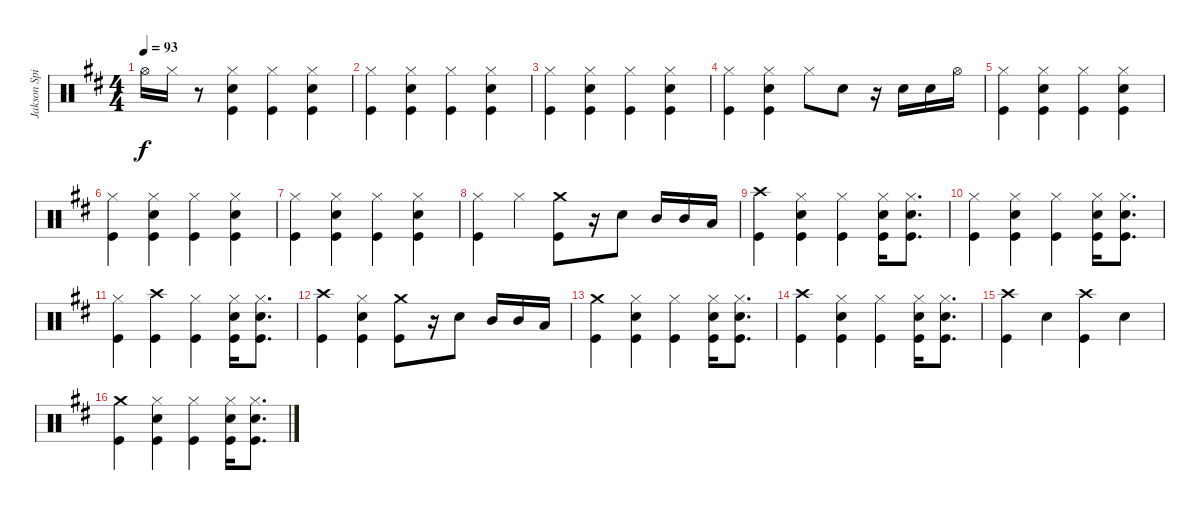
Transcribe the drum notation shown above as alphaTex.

\track ("Jakson Spires Drums" "Jakson Spi") {instrument percussion}
\staff {score}
\articulation defaults
\ts (4 4)
\tempo 93
\clef neutral
\ks bminor "Hi-Hat (open)".16{dy f} "Hi-Hat (closed)".16
r.8 ("Hi-Hat (closed)" "Snare (hit) 2" "Kick (hit)").4 ("Hi-Hat (closed)" "Kick (hit)").4 ("Hi-Hat (closed)" "Snare (hit) 2" "Kick (hit)").4 |
("Hi-Hat (closed)" "Kick (hit)").4 ("Hi-Hat (closed)" "Snare (hit) 2" "Kick (hit)").4 ("Hi-Hat (closed)" "Kick (hit)").4 ("Hi-Hat (closed)" "Snare (hit) 2" "Kick (hit)").4 |
("Hi-Hat (closed)" "Kick (hit)").4 ("Hi-Hat (closed)" "Snare (hit) 2" "Kick (hit)").4 ("Hi-Hat (closed)" "Kick (hit)").4 ("Hi-Hat (closed)" "Snare (hit) 2" "Kick (hit)").4 |
("Hi-Hat (closed)" "Kick (hit)").4 ("Hi-Hat (closed)" "Snare (hit) 2" "Kick (hit)").4 "Hi-Hat (closed)".8 "Snare (hit) 2".8 r.16 "Snare (hit) 2".16 "Snare (hit) 2".16 "Hi-Hat (open)".16 |
("Hi-Hat (closed)" "Kick (hit)").4 ("Hi-Hat (closed)" "Snare (hit) 2" "Kick (hit)").4 ("Hi-Hat (closed)" "Kick (hit)").4 ("Hi-Hat (closed)" "Snare (hit) 2" "Kick (hit)").4 |
("Hi-Hat (closed)" "Kick (hit)").4 ("Hi-Hat (closed)" "Snare (hit) 2" "Kick (hit)").4 ("Hi-Hat (closed)" "Kick (hit)").4 ("Hi-Hat (closed)" "Snare (hit) 2" "Kick (hit)").4 |
("Hi-Hat (closed)" "Kick (hit)").4 ("Hi-Hat (closed)" "Snare (hit) 2" "Kick (hit)").4 ("Hi-Hat (closed)" "Kick (hit)").4 ("Hi-Hat (closed)" "Snare (hit) 2" "Kick (hit)").4 |
("Hi-Hat (closed)" "Kick (hit)").4 "Hi-Hat (closed)".4 ("Crash medium (hit)" "Kick (hit)").8 r.16 "Snare (hit) 2".8 "Mid Tom (hit)".16 "Mid Tom (hit)".16 "Low Tom (hit)".16 |
("Crash high (hit)" "Kick (hit)").4 ("Hi-Hat (closed)" "Snare (hit) 2" "Kick (hit)").4 ("Hi-Hat (closed)" "Kick (hit)").4 ("Hi-Hat (closed)" "Snare (hit) 2" "Kick (hit)").16 ("Hi-Hat (closed)" "Snare (hit) 2" "Kick (hit)").8{d} |
("Hi-Hat (closed)" "Kick (hit)").4 ("Hi-Hat (closed)" "Snare (hit) 2" "Kick (hit)").4 ("Hi-Hat (closed)" "Kick (hit)").4 ("Hi-Hat (closed)" "Snare (hit) 2" "Kick (hit)").16 ("Hi-Hat (closed)" "Snare (hit) 2" "Kick (hit)").8{d} |
("Hi-Hat (closed)" "Kick (hit)").4 ("Crash high (hit)" "Kick (hit)").4 ("Hi-Hat (closed)" "Kick (hit)").4 ("Hi-Hat (closed)" "Snare (hit) 2" "Kick (hit)").16 ("Hi-Hat (closed)" "Snare (hit) 2" "Kick (hit)").8{d} |
("Crash high (hit)" "Kick (hit)").4 ("Hi-Hat (closed)" "Snare (hit) 2" "Kick (hit)").4 ("Crash medium (hit)" "Kick (hit)").8 r.16 "Snare (hit) 2".8 "Mid Tom (hit)".16 "Mid Tom (hit)".16 "Low Tom (hit)".16 |
("Crash medium (hit)" "Kick (hit)").4 ("Hi-Hat (closed)" "Snare (hit) 2" "Kick (hit)").4 ("Hi-Hat (closed)" "Kick (hit)").4 ("Hi-Hat (closed)" "Snare (hit) 2" "Kick (hit)").16 ("Hi-Hat (closed)" "Snare (hit) 2" "Kick (hit)").8{d} |
("Crash high (hit)" "Kick (hit)").4 ("Hi-Hat (closed)" "Snare (hit) 2" "Kick (hit)").4 ("Hi-Hat (closed)" "Kick (hit)").4 ("Hi-Hat (closed)" "Snare (hit) 2" "Kick (hit)").16 ("Hi-Hat (closed)" "Snare (hit) 2" "Kick (hit)").8{d} |
("Crash high (hit)" "Kick (hit)").4 "Snare (hit) 2".4 ("Crash high (hit)" "Kick (hit)").4 "Snare (hit) 2".4 |
("Crash medium (hit)" "Kick (hit)").4 ("Hi-Hat (closed)" "Snare (hit) 2" "Kick (hit)").4 ("Hi-Hat (closed)" "Kick (hit)").4 ("Hi-Hat (closed)" "Snare (hit) 2" "Kick (hit)").16 ("Hi-Hat (closed)" "Snare (hit) 2" "Kick (hit)").8{d}
